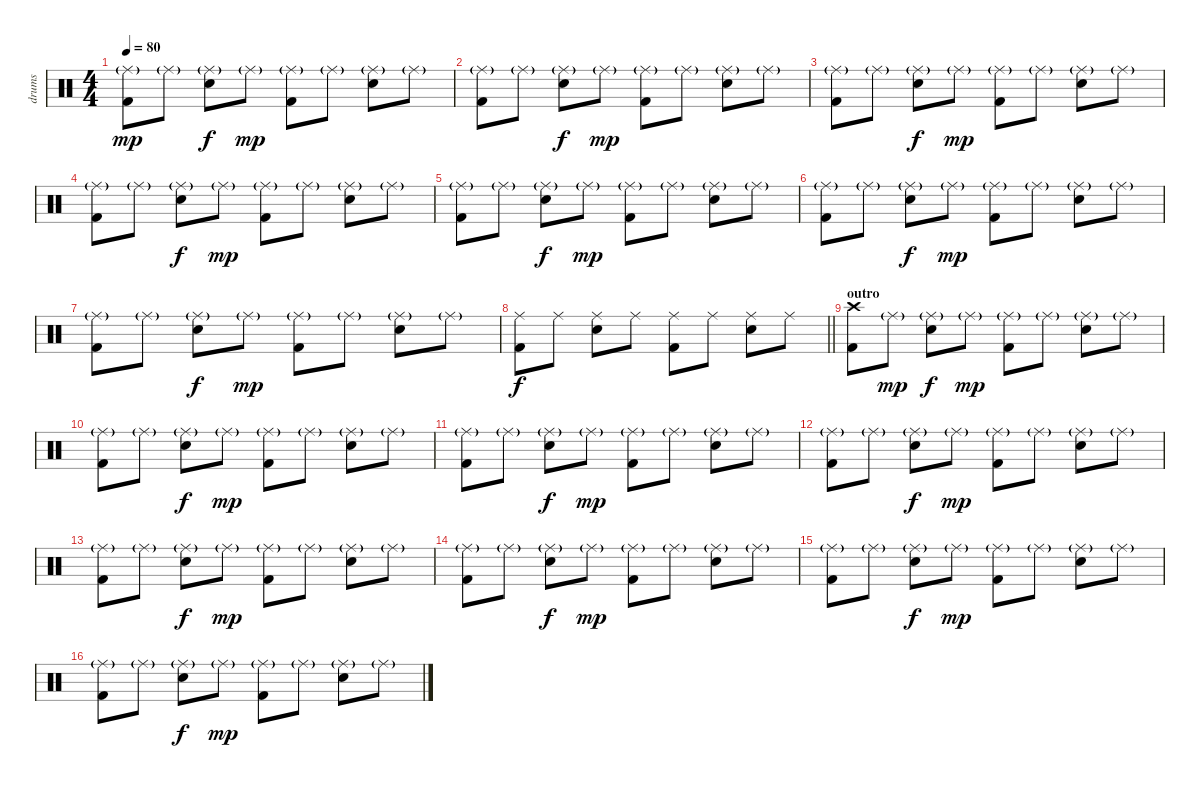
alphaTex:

\track ("drums" "drums") {instrument percussion}
\staff {score}
\articulation defaults
\ts (4 4)
\tempo 80
\clef neutral
\ks c
("Kick (hit) 2" "Ride (middle)"{g}).8{dy mp} "Ride (middle)"{g}.8 ("Snare (hit) 2" "Ride (middle)"{g}).8{dy f} "Ride (middle)"{g}.8{dy mp} ("Kick (hit) 2" "Ride (middle)"{g}).8 "Ride (middle)"{g}.8 ("Snare (hit) 2" "Ride (middle)"{g}).8 "Ride (middle)"{g}.8 |
("Kick (hit) 2" "Ride (middle)"{g}).8 "Ride (middle)"{g}.8 ("Snare (hit) 2" "Ride (middle)"{g}).8{dy f} "Ride (middle)"{g}.8{dy mp} ("Kick (hit) 2" "Ride (middle)"{g}).8 "Ride (middle)"{g}.8 ("Snare (hit) 2" "Ride (middle)"{g}).8 "Ride (middle)"{g}.8 |
("Kick (hit) 2" "Ride (middle)"{g}).8 "Ride (middle)"{g}.8 ("Snare (hit) 2" "Ride (middle)"{g}).8{dy f} "Ride (middle)"{g}.8{dy mp} ("Kick (hit) 2" "Ride (middle)"{g}).8 "Ride (middle)"{g}.8 ("Snare (hit) 2" "Ride (middle)"{g}).8 "Ride (middle)"{g}.8 |
("Kick (hit) 2" "Ride (middle)"{g}).8 "Ride (middle)"{g}.8 ("Snare (hit) 2" "Ride (middle)"{g}).8{dy f} "Ride (middle)"{g}.8{dy mp} ("Kick (hit) 2" "Ride (middle)"{g}).8 "Ride (middle)"{g}.8 ("Snare (hit) 2" "Ride (middle)"{g}).8 "Ride (middle)"{g}.8 |
("Kick (hit) 2" "Ride (middle)"{g}).8 "Ride (middle)"{g}.8 ("Snare (hit) 2" "Ride (middle)"{g}).8{dy f} "Ride (middle)"{g}.8{dy mp} ("Kick (hit) 2" "Ride (middle)"{g}).8 "Ride (middle)"{g}.8 ("Snare (hit) 2" "Ride (middle)"{g}).8 "Ride (middle)"{g}.8 |
("Kick (hit) 2" "Ride (middle)"{g}).8 "Ride (middle)"{g}.8 ("Snare (hit) 2" "Ride (middle)"{g}).8{dy f} "Ride (middle)"{g}.8{dy mp} ("Kick (hit) 2" "Ride (middle)"{g}).8 "Ride (middle)"{g}.8 ("Snare (hit) 2" "Ride (middle)"{g}).8 "Ride (middle)"{g}.8 |
("Kick (hit) 2" "Ride (middle)"{g}).8 "Ride (middle)"{g}.8 ("Snare (hit) 2" "Ride (middle)"{g}).8{dy f} "Ride (middle)"{g}.8{dy mp} ("Kick (hit) 2" "Ride (middle)"{g}).8 "Ride (middle)"{g}.8 ("Snare (hit) 2" "Ride (middle)"{g}).8 "Ride (middle)"{g}.8 |
\barLineRight lightlight
("Kick (hit) 2" "Ride (middle)").8{dy f} "Ride (middle)".8 ("Snare (hit) 2" "Ride (middle)").8 "Ride (middle)".8 ("Kick (hit) 2" "Ride (middle)").8 "Ride (middle)".8 ("Snare (hit) 2" "Ride (middle)").8 "Ride (middle)".8 |
\section ("" "outro")
("Kick (hit) 2" "Crash high (hit)").8 "Ride (middle)"{g}.8{dy mp} ("Snare (hit) 2" "Ride (middle)"{g}).8{dy f} "Ride (middle)"{g}.8{dy mp} ("Kick (hit) 2" "Ride (middle)"{g}).8 "Ride (middle)"{g}.8 ("Snare (hit) 2" "Ride (middle)"{g}).8 "Ride (middle)"{g}.8 |
("Kick (hit) 2" "Ride (middle)"{g}).8 "Ride (middle)"{g}.8 ("Snare (hit) 2" "Ride (middle)"{g}).8{dy f} "Ride (middle)"{g}.8{dy mp} ("Kick (hit) 2" "Ride (middle)"{g}).8 "Ride (middle)"{g}.8 ("Snare (hit) 2" "Ride (middle)"{g}).8 "Ride (middle)"{g}.8 |
("Kick (hit) 2" "Ride (middle)"{g}).8 "Ride (middle)"{g}.8 ("Snare (hit) 2" "Ride (middle)"{g}).8{dy f} "Ride (middle)"{g}.8{dy mp} ("Kick (hit) 2" "Ride (middle)"{g}).8 "Ride (middle)"{g}.8 ("Snare (hit) 2" "Ride (middle)"{g}).8 "Ride (middle)"{g}.8 |
("Kick (hit) 2" "Ride (middle)"{g}).8 "Ride (middle)"{g}.8 ("Snare (hit) 2" "Ride (middle)"{g}).8{dy f} "Ride (middle)"{g}.8{dy mp} ("Kick (hit) 2" "Ride (middle)"{g}).8 "Ride (middle)"{g}.8 ("Snare (hit) 2" "Ride (middle)"{g}).8 "Ride (middle)"{g}.8 |
("Kick (hit) 2" "Ride (middle)"{g}).8 "Ride (middle)"{g}.8 ("Snare (hit) 2" "Ride (middle)"{g}).8{dy f} "Ride (middle)"{g}.8{dy mp} ("Kick (hit) 2" "Ride (middle)"{g}).8 "Ride (middle)"{g}.8 ("Snare (hit) 2" "Ride (middle)"{g}).8 "Ride (middle)"{g}.8 |
("Kick (hit) 2" "Ride (middle)"{g}).8 "Ride (middle)"{g}.8 ("Snare (hit) 2" "Ride (middle)"{g}).8{dy f} "Ride (middle)"{g}.8{dy mp} ("Kick (hit) 2" "Ride (middle)"{g}).8 "Ride (middle)"{g}.8 ("Snare (hit) 2" "Ride (middle)"{g}).8 "Ride (middle)"{g}.8 |
("Kick (hit) 2" "Ride (middle)"{g}).8 "Ride (middle)"{g}.8 ("Snare (hit) 2" "Ride (middle)"{g}).8{dy f} "Ride (middle)"{g}.8{dy mp} ("Kick (hit) 2" "Ride (middle)"{g}).8 "Ride (middle)"{g}.8 ("Snare (hit) 2" "Ride (middle)"{g}).8 "Ride (middle)"{g}.8 |
("Kick (hit) 2" "Ride (middle)"{g}).8 "Ride (middle)"{g}.8 ("Snare (hit) 2" "Ride (middle)"{g}).8{dy f} "Ride (middle)"{g}.8{dy mp} ("Kick (hit) 2" "Ride (middle)"{g}).8 "Ride (middle)"{g}.8 ("Snare (hit) 2" "Ride (middle)"{g}).8 "Ride (middle)"{g}.8
